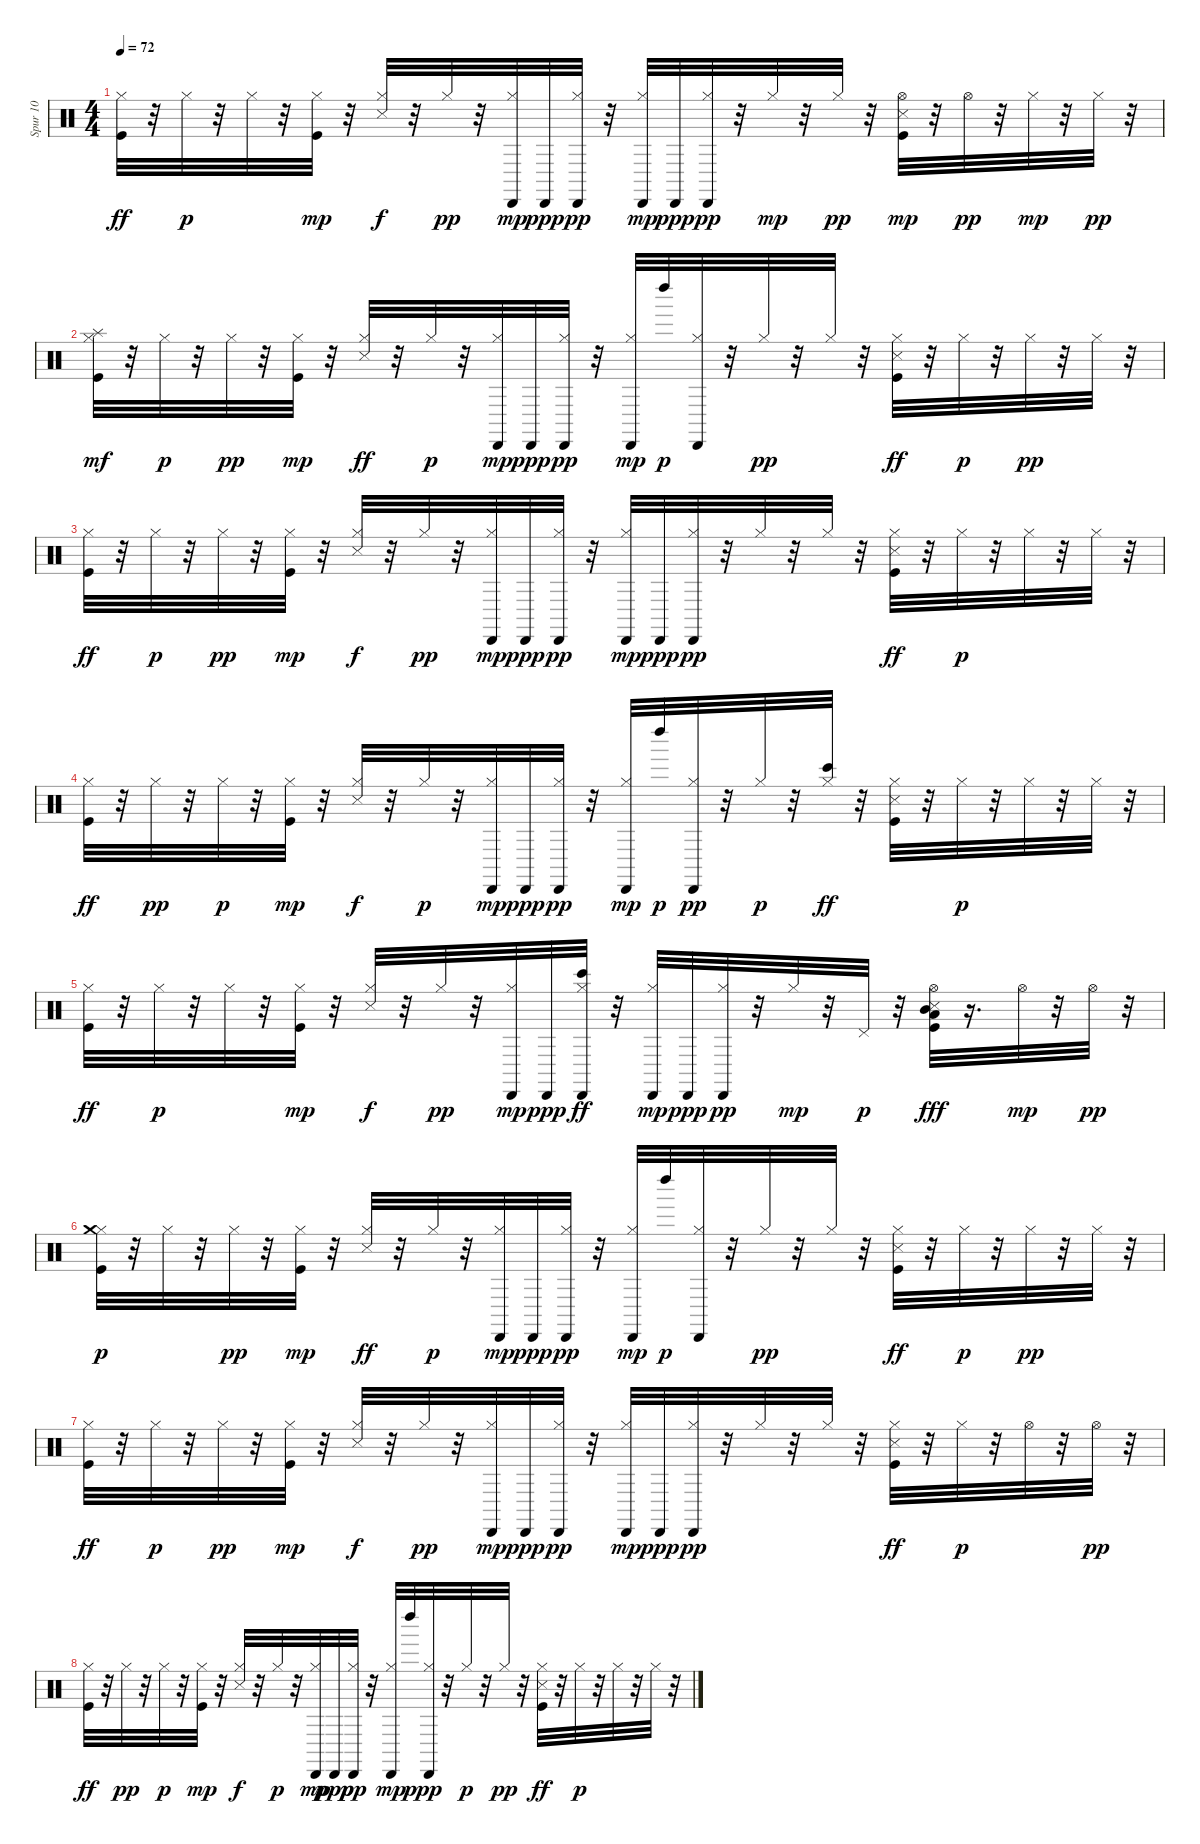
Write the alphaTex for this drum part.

\track ("Spur 10" "Spur 10") {instrument percussion}
\staff {score}
\articulation defaults
\ts (4 4)
\tempo 72
\clef neutral
\ks c
("Kick (hit)" "Hi-Hat (closed)").32{dy ff} r.32 "Hi-Hat (closed)".32{dy p} r.32 "Hi-Hat (closed)".32 r.32 ("Hi-Hat (closed)" "Kick (hit)").32{dy mp} r.32 ("Hi-Hat (closed)" "Snare (side stick) 3").32{dy f} r.32 "Hi-Hat (closed)".32{dy pp} r.32 ("Hi-Hat (closed)" "Cabasa (hit)").32{dy mp} "Cabasa (hit)".32{dy ppp} ("Hi-Hat (closed)" "Cabasa (hit)").32{dy pp} r.32 ("Hi-Hat (closed)" "Cabasa (hit)").32{dy mp} "Cabasa (hit)".32{dy ppp} ("Cabasa (hit)" "Hi-Hat (closed)").32{dy pp} r.32 "Hi-Hat (closed)".32{dy mp} r.32 "Hi-Hat (closed)".32{dy pp} r.32 ("Snare (side stick) 3" "Kick (hit)" "Hi-Hat (open)").32{dy mp} r.32 "Hi-Hat (open)".32{dy pp} r.32 "Hi-Hat (closed)".32{dy mp} r.32 "Hi-Hat (closed)".32{dy pp} r.32 |
("Kick (hit)" "Hi-Hat (closed)" "Splash (hit)").32{dy mf} r.32 "Hi-Hat (closed)".32{dy p} r.32 "Hi-Hat (closed)".32{dy pp} r.32 ("Hi-Hat (closed)" "Kick (hit)").32{dy mp} r.32 ("Hi-Hat (closed)" "Snare (side stick) 3").32{dy ff} r.32 "Hi-Hat (closed)".32{dy p} r.32 ("Hi-Hat (closed)" "Cabasa (hit)").32{dy mp} "Cabasa (hit)".32{dy ppp} ("Hi-Hat (closed)" "Cabasa (hit)").32{dy pp} r.32 ("Cabasa (hit)" "Hi-Hat (closed)").32{dy mp} "Left Maraca (hit)".32{dy p} ("Cabasa (hit)" "Hi-Hat (closed)").32 r.32 "Hi-Hat (closed)".32{dy pp} r.32 "Hi-Hat (closed)".32 r.32 ("Snare (side stick) 3" "Kick (hit)" "Hi-Hat (closed)").32{dy ff} r.32 "Hi-Hat (closed)".32{dy p} r.32 "Hi-Hat (closed)".32{dy pp} r.32 "Hi-Hat (closed)".32 r.32 |
("Kick (hit)" "Hi-Hat (closed)").32{dy ff} r.32 "Hi-Hat (closed)".32{dy p} r.32 "Hi-Hat (closed)".32{dy pp} r.32 ("Hi-Hat (closed)" "Kick (hit)").32{dy mp} r.32 ("Hi-Hat (closed)" "Snare (side stick) 3").32{dy f} r.32 "Hi-Hat (closed)".32{dy pp} r.32 ("Hi-Hat (closed)" "Cabasa (hit)").32{dy mp} "Cabasa (hit)".32{dy ppp} ("Hi-Hat (closed)" "Cabasa (hit)").32{dy pp} r.32 ("Hi-Hat (closed)" "Cabasa (hit)").32{dy mp} "Cabasa (hit)".32{dy ppp} ("Cabasa (hit)" "Hi-Hat (closed)").32{dy pp} r.32 "Hi-Hat (closed)".32 r.32 "Hi-Hat (closed)".32 r.32 ("Snare (side stick) 3" "Kick (hit)" "Hi-Hat (closed)").32{dy ff} r.32 "Hi-Hat (closed)".32{dy p} r.32 "Hi-Hat (closed)".32 r.32 "Hi-Hat (closed)".32 r.32 |
("Kick (hit)" "Hi-Hat (closed)").32{dy ff} r.32 "Hi-Hat (closed)".32{dy pp} r.32 "Hi-Hat (closed)".32{dy p} r.32 ("Hi-Hat (closed)" "Kick (hit)").32{dy mp} r.32 ("Hi-Hat (closed)" "Snare (side stick) 3").32{dy f} r.32 "Hi-Hat (closed)".32{dy p} r.32 ("Hi-Hat (closed)" "Cabasa (hit)").32{dy mp} "Cabasa (hit)".32{dy ppp} ("Hi-Hat (closed)" "Cabasa (hit)").32{dy pp} r.32 ("Hi-Hat (closed)" "Cabasa (hit)").32{dy mp} "Left Maraca (hit)".32{dy p} ("Cabasa (hit)" "Hi-Hat (closed)").32{dy pp} r.32 "Hi-Hat (closed)".32{dy p} r.32 ("Hi-Hat (closed)" "Bongo High (hit)").32{dy ff} r.32 ("Snare (side stick) 3" "Kick (hit)" "Hi-Hat (closed)").32 r.32 "Hi-Hat (closed)".32{dy p} r.32 "Hi-Hat (closed)".32 r.32 "Hi-Hat (closed)".32 r.32 |
("Kick (hit)" "Hi-Hat (closed)").32{dy ff} r.32 "Hi-Hat (closed)".32{dy p} r.32 "Hi-Hat (closed)".32 r.32 ("Hi-Hat (closed)" "Kick (hit)").32{dy mp} r.32 ("Hi-Hat (closed)" "Snare (side stick) 3").32{dy f} r.32 "Hi-Hat (closed)".32{dy pp} r.32 ("Hi-Hat (closed)" "Cabasa (hit)").32{dy mp} "Cabasa (hit)".32{dy ppp} ("Hi-Hat (closed)" "Cabasa (hit)" "Bongo High (hit)").32{dy ff} r.32 ("Hi-Hat (closed)" "Cabasa (hit)").32{dy mp} "Cabasa (hit)".32{dy ppp} ("Cabasa (hit)" "Hi-Hat (closed)").32{dy pp} r.32 "Hi-Hat (closed)".32{dy mp} r.32 "Pedal Hi-Hat (hit)".32{dy p} r.32 ("Low Floor Tom (hit)" "Snare (side stick) 3" "Kick (hit)" "Hi-Hat (open)" "Mid Tom (hit)").32{dy fff} r.16{d} "Hi-Hat (open)".32{dy mp} r.32 "Hi-Hat (open)".32{dy pp} r.32 |
("Kick (hit)" "Hi-Hat (closed)" "Crash medium (hit)").32{dy p} r.32 "Hi-Hat (closed)".32 r.32 "Hi-Hat (closed)".32{dy pp} r.32 ("Hi-Hat (closed)" "Kick (hit)").32{dy mp} r.32 ("Hi-Hat (closed)" "Snare (side stick) 3").32{dy ff} r.32 "Hi-Hat (closed)".32{dy p} r.32 ("Hi-Hat (closed)" "Cabasa (hit)").32{dy mp} "Cabasa (hit)".32{dy ppp} ("Hi-Hat (closed)" "Cabasa (hit)").32{dy pp} r.32 ("Cabasa (hit)" "Hi-Hat (closed)").32{dy mp} "Left Maraca (hit)".32{dy p} ("Cabasa (hit)" "Hi-Hat (closed)").32 r.32 "Hi-Hat (closed)".32{dy pp} r.32 "Hi-Hat (closed)".32 r.32 ("Snare (side stick) 3" "Kick (hit)" "Hi-Hat (closed)").32{dy ff} r.32 "Hi-Hat (closed)".32{dy p} r.32 "Hi-Hat (closed)".32{dy pp} r.32 "Hi-Hat (closed)".32 r.32 |
("Kick (hit)" "Hi-Hat (closed)").32{dy ff} r.32 "Hi-Hat (closed)".32{dy p} r.32 "Hi-Hat (closed)".32{dy pp} r.32 ("Hi-Hat (closed)" "Kick (hit)").32{dy mp} r.32 ("Hi-Hat (closed)" "Snare (side stick) 3").32{dy f} r.32 "Hi-Hat (closed)".32{dy pp} r.32 ("Hi-Hat (closed)" "Cabasa (hit)").32{dy mp} "Cabasa (hit)".32{dy ppp} ("Hi-Hat (closed)" "Cabasa (hit)").32{dy pp} r.32 ("Hi-Hat (closed)" "Cabasa (hit)").32{dy mp} "Cabasa (hit)".32{dy ppp} ("Cabasa (hit)" "Hi-Hat (closed)").32{dy pp} r.32 "Hi-Hat (closed)".32 r.32 "Hi-Hat (closed)".32 r.32 ("Snare (side stick) 3" "Kick (hit)" "Hi-Hat (closed)").32{dy ff} r.32 "Hi-Hat (closed)".32{dy p} r.32 "Hi-Hat (open)".32 r.32 "Hi-Hat (open)".32{dy pp} r.32 |
("Kick (hit)" "Hi-Hat (closed)").32{dy ff} r.32 "Hi-Hat (closed)".32{dy pp} r.32 "Hi-Hat (closed)".32{dy p} r.32 ("Hi-Hat (closed)" "Kick (hit)").32{dy mp} r.32 ("Hi-Hat (closed)" "Snare (side stick) 3").32{dy f} r.32 "Hi-Hat (closed)".32{dy p} r.32 ("Hi-Hat (closed)" "Cabasa (hit)").32{dy mp} "Cabasa (hit)".32{dy ppp} ("Hi-Hat (closed)" "Cabasa (hit)").32{dy pp} r.32 ("Hi-Hat (closed)" "Cabasa (hit)").32{dy mp} "Left Maraca (hit)".32{dy p} ("Cabasa (hit)" "Hi-Hat (closed)").32{dy pp} r.32 "Hi-Hat (closed)".32{dy p} r.32 "Hi-Hat (closed)".32{dy pp} r.32 ("Snare (side stick) 3" "Kick (hit)" "Hi-Hat (closed)").32{dy ff} r.32 "Hi-Hat (closed)".32{dy p} r.32 "Hi-Hat (closed)".32 r.32 "Hi-Hat (closed)".32 r.32
